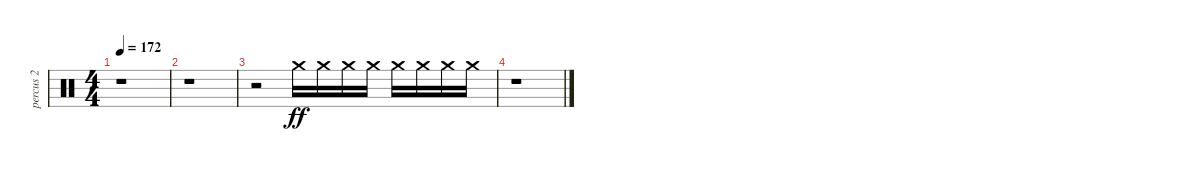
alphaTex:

\track ("percus 2" "percus 2") {instrument percussion}
\staff {score}
\articulation defaults
\ts (4 4)
\tempo 172
\clef neutral
\ks c
r.1{dy ff} |
r.1 |
r.2 "Crash medium (hit)".16{volume 0} "Crash medium (hit)".16{volume 3} "Crash medium (hit)".16{volume 5} "Crash medium (hit)".16{volume 8} "Crash medium (hit)".16{volume 11} "Crash medium (hit)".16{volume 13} "Crash medium (hit)".16{volume 16} "Crash medium (hit)".16 |
r.1
